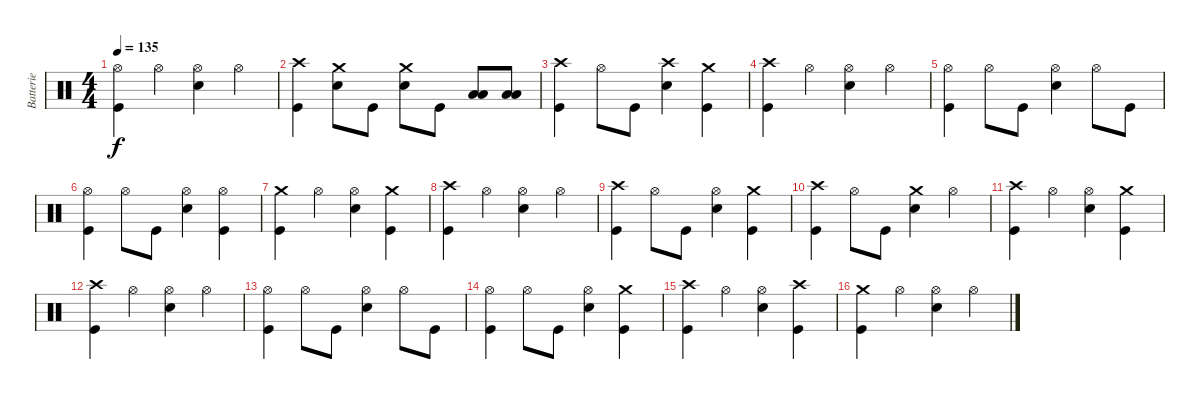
\track ("Batterie" "Batterie") {instrument percussion}
\staff {score}
\articulation defaults
\ts (4 4)
\tempo 135
\clef neutral
\ks c
("Hi-Hat (open)" "Kick (hit)").4{dy f} "Hi-Hat (open)".4 ("Hi-Hat (open)" "Electric Snare (hit)").4 "Hi-Hat (open)".4 |
("Crash high (hit)" "Kick (hit)").4 ("Crash medium (hit)" "Electric Snare (hit)").8 "Kick (hit)".8 ("Crash medium (hit)" "Electric Snare (hit)").8 "Kick (hit)".8 ("Low Tom (hit)" "Low Floor Tom (hit)").8 ("Low Tom (hit)" "Low Floor Tom (hit)").8 |
("Crash high (hit)" "Kick (hit)").4 "Hi-Hat (open)".8 "Kick (hit)".8 ("Crash high (hit)" "Electric Snare (hit)").4 ("Crash medium (hit)" "Kick (hit)").4 |
("Crash high (hit)" "Kick (hit)").4 "Hi-Hat (open)".4 ("Hi-Hat (open)" "Electric Snare (hit)").4 "Hi-Hat (open)".4 |
("Hi-Hat (open)" "Kick (hit)").4 "Hi-Hat (open)".8 "Kick (hit)".8 ("Hi-Hat (open)" "Electric Snare (hit)").4 "Hi-Hat (open)".8 "Kick (hit)".8 |
("Hi-Hat (open)" "Kick (hit)").4 "Hi-Hat (open)".8 "Kick (hit)".8 ("Hi-Hat (open)" "Electric Snare (hit)").4 ("Hi-Hat (open)" "Kick (hit)").4 |
("Crash medium (hit)" "Kick (hit)").4 "Hi-Hat (open)".4 ("Hi-Hat (open)" "Electric Snare (hit)").4 ("Crash medium (hit)" "Kick (hit)").4 |
("Crash high (hit)" "Kick (hit)").4 "Hi-Hat (open)".4 ("Hi-Hat (open)" "Electric Snare (hit)").4 "Hi-Hat (open)".4 |
("Crash high (hit)" "Kick (hit)").4 "Hi-Hat (open)".8 "Kick (hit)".8 ("Hi-Hat (open)" "Electric Snare (hit)").4 ("Crash medium (hit)" "Kick (hit)").4 |
("Crash high (hit)" "Kick (hit)").4 "Hi-Hat (open)".8 "Kick (hit)".8 ("Crash medium (hit)" "Electric Snare (hit)").4 "Hi-Hat (open)".4 |
("Crash high (hit)" "Kick (hit)").4 "Hi-Hat (open)".4 ("Hi-Hat (open)" "Electric Snare (hit)").4 ("Crash medium (hit)" "Kick (hit)").4 |
("Crash high (hit)" "Kick (hit)").4 "Hi-Hat (open)".4 ("Hi-Hat (open)" "Electric Snare (hit)").4 "Hi-Hat (open)".4 |
("Hi-Hat (open)" "Kick (hit)").4 "Hi-Hat (open)".8 "Kick (hit)".8 ("Hi-Hat (open)" "Electric Snare (hit)").4 "Hi-Hat (open)".8 "Kick (hit)".8 |
("Hi-Hat (open)" "Kick (hit)").4 "Hi-Hat (open)".8 "Kick (hit)".8 ("Hi-Hat (open)" "Electric Snare (hit)").4 ("Crash medium (hit)" "Kick (hit)").4 |
("Crash high (hit)" "Kick (hit)").4 "Hi-Hat (open)".4 ("Hi-Hat (open)" "Electric Snare (hit)").4 ("Crash high (hit)" "Kick (hit)").4 |
("Crash medium (hit)" "Kick (hit)").4 "Hi-Hat (open)".4 ("Hi-Hat (open)" "Electric Snare (hit)").4 "Hi-Hat (open)".4
